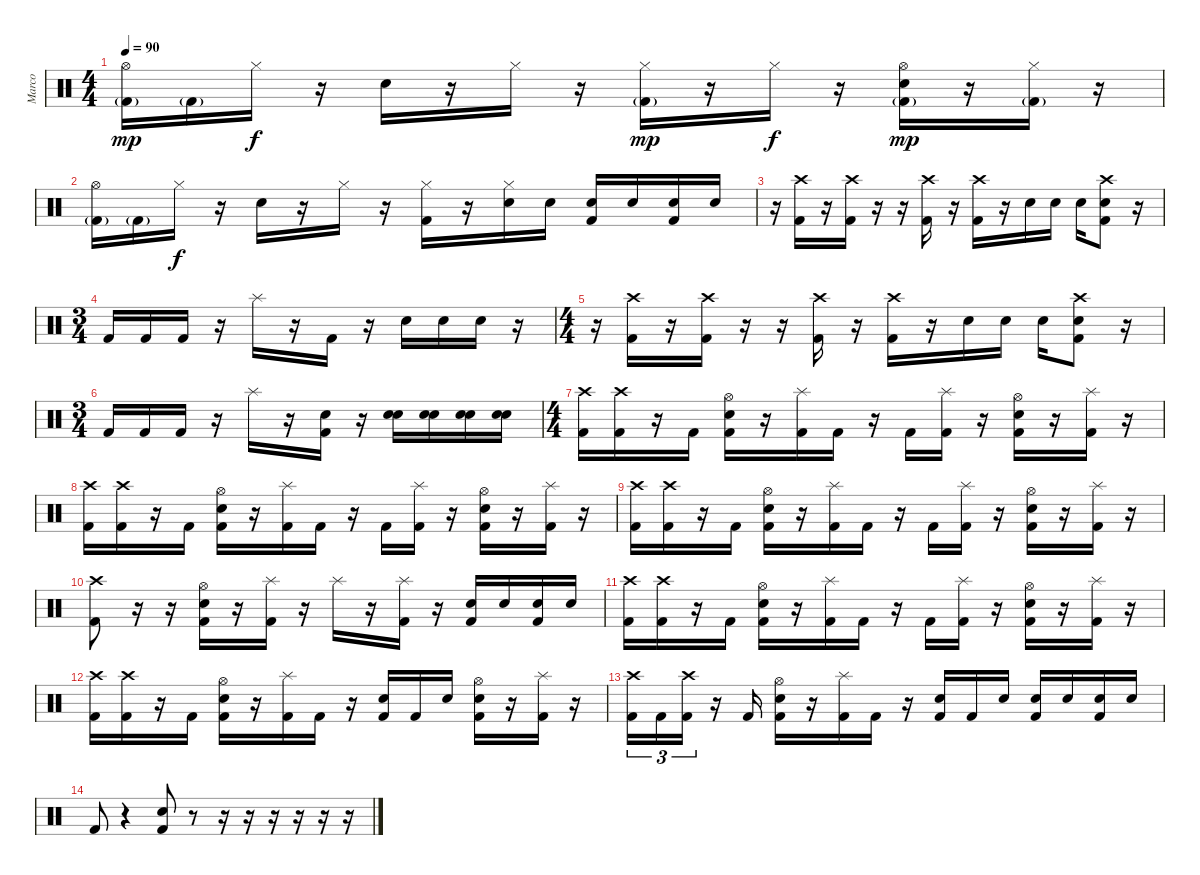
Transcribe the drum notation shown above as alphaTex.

\track ("Marco" "Marco") {instrument percussion}
\staff {score}
\articulation defaults
\ts (4 4)
\tempo 90
\clef neutral
\ks c
("Hi-Hat (open)" "Kick (hit) 2"{g}).16{dy mp} "Kick (hit) 2"{g}.16 "Hi-Hat (closed)".16{dy f} r.16 "Electric Snare (hit)".16 r.16 "Hi-Hat (closed)".16 r.16 ("Hi-Hat (closed)" "Kick (hit) 2"{g}).16{dy mp} r.16 "Hi-Hat (closed)".16{dy f} r.16 ("Kick (hit) 2"{g} "Hi-Hat (open)" "Electric Snare (hit)").16{dy mp} r.16 ("Hi-Hat (closed)" "Kick (hit) 2"{g}).16 r.16 |
("Hi-Hat (open)" "Kick (hit) 2"{g}).16 "Kick (hit) 2"{g}.16 "Hi-Hat (closed)".16{dy f} r.16 "Electric Snare (hit)".16 r.16 "Hi-Hat (closed)".16 r.16 ("Hi-Hat (closed)" "Kick (hit) 2").16 r.16 ("Hi-Hat (closed)" "Snare (hit) 2").16 "Snare (hit) 2".16 ("Kick (hit) 2" "Snare (hit) 2").16 "Snare (hit) 2".16 ("Snare (hit) 2" "Kick (hit) 2").16 "Snare (hit) 2".16 |
r.16 ("Crash high (hit)" "Kick (hit) 2").16 r.16 ("Crash high (hit)" "Kick (hit) 2").16 r.16 r.16 ("Crash high (hit)" "Kick (hit) 2").16 r.16 ("Crash high (hit)" "Kick (hit) 2").16 r.16 "Snare (hit) 2".16 "Snare (hit) 2".16 "Snare (hit) 2".16 ("Crash high (hit)" "Kick (hit) 2" "Snare (hit) 2").8 r.16 |
\ts (3 4)
"Kick (hit) 2".16 "Kick (hit) 2".16 "Kick (hit) 2".16 r.16 "Splash (hit)".16 r.16 "Kick (hit) 2".16 r.16 "Snare (hit) 2".16 "Snare (hit) 2".16 "Snare (hit) 2".16 r.16 |
\ts (4 4)
r.16 ("Crash high (hit)" "Kick (hit) 2").16 r.16 ("Crash high (hit)" "Kick (hit) 2").16 r.16 r.16 ("Crash high (hit)" "Kick (hit) 2").16 r.16 ("Crash high (hit)" "Kick (hit) 2").16 r.16 "Snare (hit) 2".16 "Snare (hit) 2".16 "Snare (hit) 2".16 ("Crash high (hit)" "Kick (hit) 2" "Snare (hit) 2").8 r.16 |
\ts (3 4)
"Kick (hit) 2".16 "Kick (hit) 2".16 "Kick (hit) 2".16 r.16 "Splash (hit)".16 r.16 ("Snare (hit) 2" "Kick (hit) 2").16 r.16 ("Electric Snare (hit)" "Snare (hit) 2").16 ("Electric Snare (hit)" "Snare (hit) 2").16 ("Electric Snare (hit)" "Snare (hit) 2").16 ("Electric Snare (hit)" "Snare (hit) 2").16 |
\ts (4 4)
("Crash high (hit)" "Kick (hit) 2").16 ("Crash high (hit)" "Kick (hit) 2").16 r.16 "Kick (hit) 2".16 ("Hi-Hat (open)" "Snare (hit) 2" "Kick (hit) 2").16 r.16 ("Splash (hit)" "Kick (hit) 2").16 "Kick (hit) 2".16 r.16 "Kick (hit) 2".16 ("Splash (hit)" "Kick (hit) 2").16 r.16 ("Kick (hit) 2" "Hi-Hat (open)" "Snare (hit) 2").16 r.16 ("Splash (hit)" "Kick (hit) 2").16 r.16 |
("Crash high (hit)" "Kick (hit) 2").16 ("Crash high (hit)" "Kick (hit) 2").16 r.16 "Kick (hit) 2".16 ("Hi-Hat (open)" "Snare (hit) 2" "Kick (hit) 2").16 r.16 ("Splash (hit)" "Kick (hit) 2").16 "Kick (hit) 2".16 r.16 "Kick (hit) 2".16 ("Splash (hit)" "Kick (hit) 2").16 r.16 ("Kick (hit) 2" "Hi-Hat (open)" "Snare (hit) 2").16 r.16 ("Splash (hit)" "Kick (hit) 2").16 r.16 |
("Crash high (hit)" "Kick (hit) 2").16 ("Crash high (hit)" "Kick (hit) 2").16 r.16 "Kick (hit) 2".16 ("Hi-Hat (open)" "Snare (hit) 2" "Kick (hit) 2").16 r.16 ("Splash (hit)" "Kick (hit) 2").16 "Kick (hit) 2".16 r.16 "Kick (hit) 2".16 ("Splash (hit)" "Kick (hit) 2").16 r.16 ("Kick (hit) 2" "Hi-Hat (open)" "Snare (hit) 2").16 r.16 ("Splash (hit)" "Kick (hit) 2").16 r.16 |
("Crash high (hit)" "Kick (hit) 2").8 r.16 r.16 ("Hi-Hat (open)" "Snare (hit) 2" "Kick (hit) 2").16 r.16 ("Splash (hit)" "Kick (hit) 2").16 r.16 "Splash (hit)".16 r.16 ("Splash (hit)" "Kick (hit) 2").16 r.16 ("Kick (hit) 2" "Snare (hit) 2").16 "Snare (hit) 2".16 ("Snare (hit) 2" "Kick (hit) 2").16 "Snare (hit) 2".16 |
("Crash high (hit)" "Kick (hit) 2").16 ("Crash high (hit)" "Kick (hit) 2").16 r.16 "Kick (hit) 2".16 ("Hi-Hat (open)" "Snare (hit) 2" "Kick (hit) 2").16 r.16 ("Splash (hit)" "Kick (hit) 2").16 "Kick (hit) 2".16 r.16 "Kick (hit) 2".16 ("Splash (hit)" "Kick (hit) 2").16 r.16 ("Kick (hit) 2" "Hi-Hat (open)" "Snare (hit) 2").16 r.16 ("Splash (hit)" "Kick (hit) 2").16 r.16 |
("Crash high (hit)" "Kick (hit) 2").16 ("Crash high (hit)" "Kick (hit) 2").16 r.16 "Kick (hit) 2".16 ("Hi-Hat (open)" "Snare (hit) 2" "Kick (hit) 2").16 r.16 ("Splash (hit)" "Kick (hit) 2").16 "Kick (hit) 2".16 r.16 ("Snare (hit) 2" "Kick (hit) 2").16 "Kick (hit) 2".16 "Snare (hit) 2".16 ("Kick (hit) 2" "Hi-Hat (open)" "Snare (hit) 2").16 r.16 ("Splash (hit)" "Kick (hit) 2").16 r.16 |
("Crash high (hit)" "Kick (hit) 2").16{tu (3 2)} "Kick (hit) 2".16{tu (3 2)} ("Crash high (hit)" "Kick (hit) 2").16{tu (3 2)} r.16 "Kick (hit) 2".16 ("Hi-Hat (open)" "Snare (hit) 2" "Kick (hit) 2").16 r.16 ("Splash (hit)" "Kick (hit) 2").16 "Kick (hit) 2".16 r.16 ("Snare (hit) 2" "Kick (hit) 2").16 "Kick (hit) 2".16 "Snare (hit) 2".16 ("Snare (hit) 2" "Kick (hit) 2").16 "Snare (hit) 2".16 ("Snare (hit) 2" "Kick (hit) 2").16 "Snare (hit) 2".16 |
"Kick (hit) 2".8 r.4 ("Snare (hit) 2" "Kick (hit) 2").8 r.8 r.16 r.16 r.16 r.16 r.16 r.16
